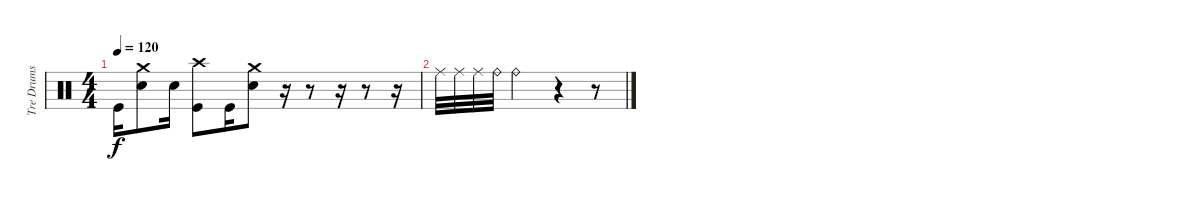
\track ("Tre Drums" "Tre Drums") {instrument percussion}
\staff {score}
\articulation defaults
\ts (4 4)
\tempo 120
\clef neutral
\ks c "Kick (hit)".16{dy f}
("Crash medium (hit)" "Electric Snare (hit)").8 "Electric Snare (hit)".16 ("Crash high (hit)" "Kick (hit)").8 "Kick (hit)".16 ("Crash medium (hit)" "Electric Snare (hit)").8 r.16 r.8 r.16 r.8 r.16 |
"Ride (middle)".32 "Ride (middle)".32 "Ride (middle)".32 "Ride (bell)".32 "Ride (bell)".2 r.4 r.8
